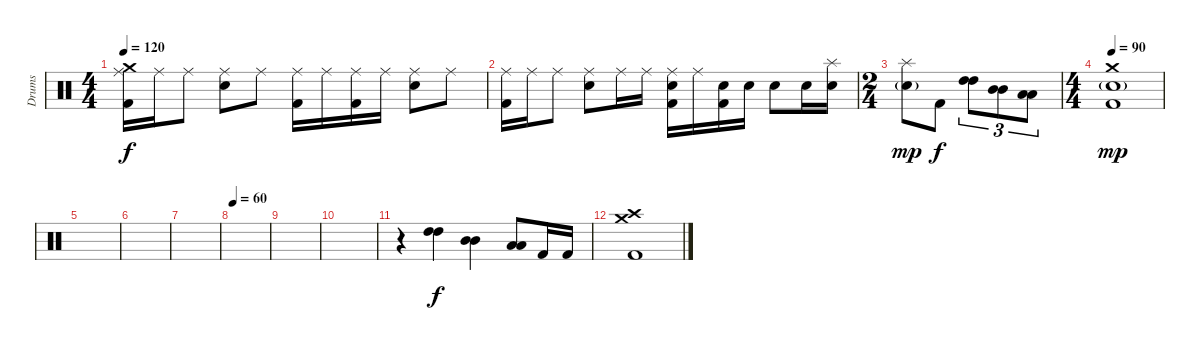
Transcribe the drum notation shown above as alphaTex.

\track ("Drums" "Drums") {instrument percussion}
\staff {score}
\articulation defaults
\ts (4 4)
\tempo 120
\clef neutral
\ks c
("Crash medium (hit)" "Ride (middle)" "Kick (hit) 2").16{dy f} "Ride (middle)".16 "Ride (middle)".8 ("Ride (middle)" "Electric Snare (hit)").8 "Ride (middle)".8 ("Ride (middle)" "Kick (hit) 2").16 "Ride (middle)".16 ("Ride (middle)" "Kick (hit) 2").16 "Ride (middle)".16 ("Ride (middle)" "Electric Snare (hit)").8 "Ride (middle)".8 |
("Ride (middle)" "Kick (hit) 2").16 "Ride (middle)".16 "Ride (middle)".8 ("Ride (middle)" "Electric Snare (hit)").8 "Ride (middle)".16 "Ride (middle)".16 ("Ride (middle)" "Electric Snare (hit)" "Kick (hit) 2").16 "Ride (middle)".16 ("Electric Snare (hit)" "Kick (hit) 2").16 "Electric Snare (hit)".16 "Electric Snare (hit)".8 "Electric Snare (hit)".16 ("Electric Snare (hit)" "Splash (hit)").16 |
\ts (2 4)
("Splash (hit)" "Electric Snare (hit)"{g}).8{dy mp} "Kick (hit) 2".8{dy f} ("High Tom (hit)" "High Tom (hit)").8{tu (3 2)} ("Mid Tom (hit)" "Mid Tom (hit)").8{tu (3 2)} ("Low Tom (hit)" "Low Tom (hit)").8{tu (3 2)} |
\ts (4 4)
\tempo 90
("Crash medium (hit)" "Kick (hit) 2" "Electric Snare (hit)"{g}).1{dy mp} |
|
|
|
\tempo 60
|
|
|
r.4 ("High Tom (hit)" "High Tom (hit)").4{dy f} ("Mid Tom (hit)" "Mid Tom (hit)").4 ("Low Tom (hit)" "Low Tom (hit)").8 "Kick (hit) 2".16 "Kick (hit) 2".16 |
("Crash medium (hit)" "Crash high (hit)" "Kick (hit) 2").1
